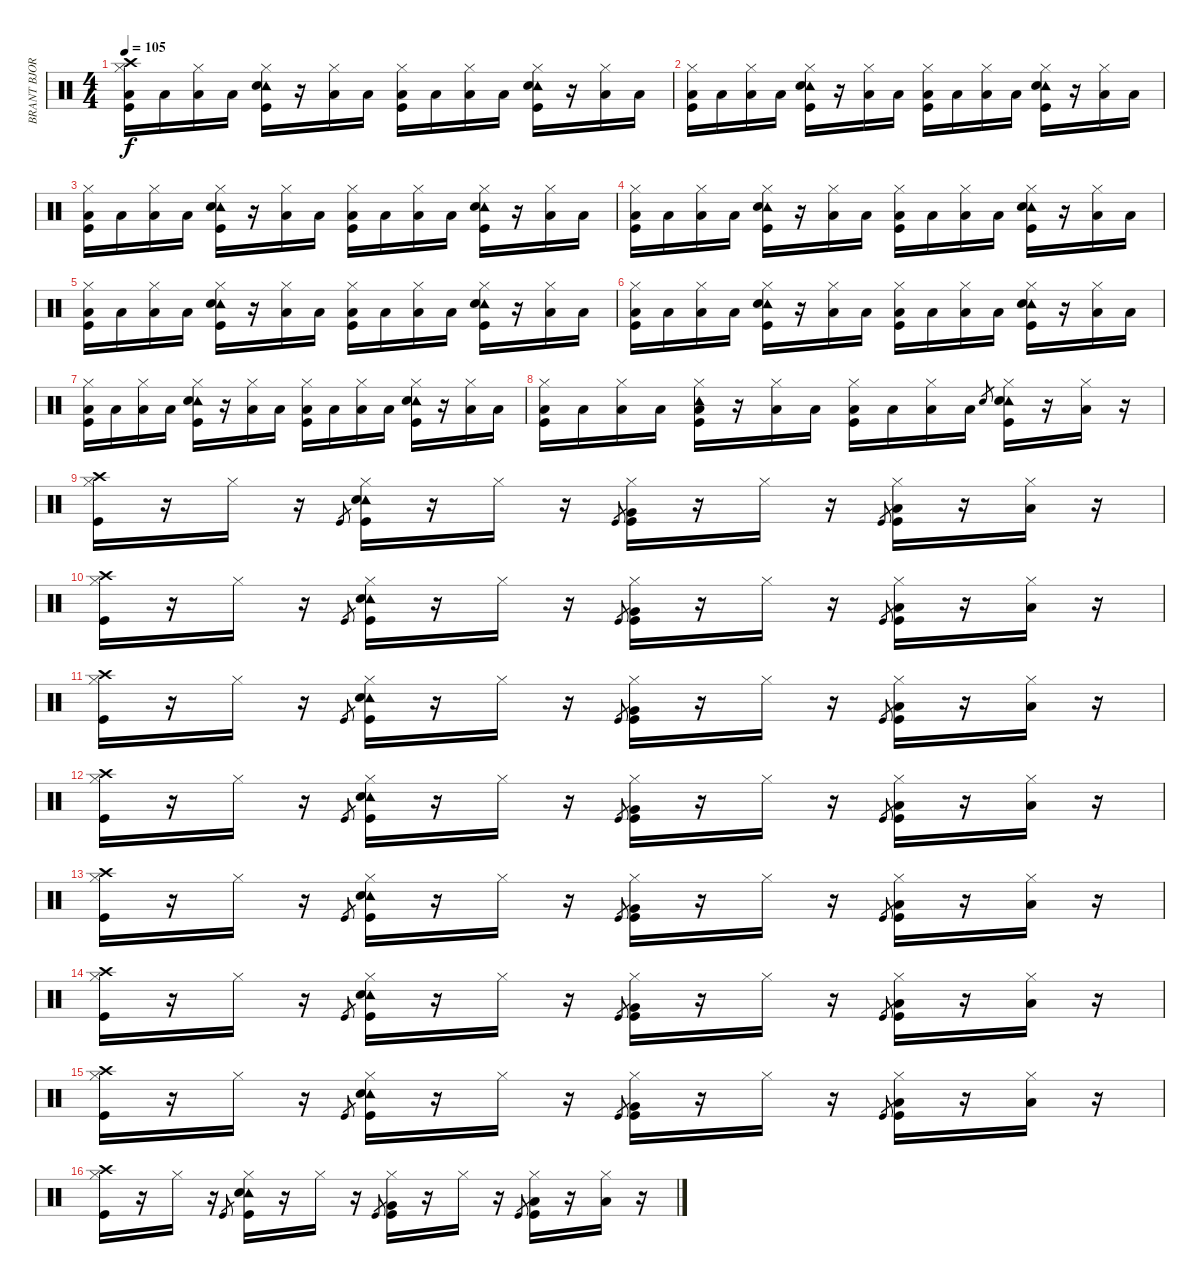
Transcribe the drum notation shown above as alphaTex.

\track ("BRANT BJORK -  DRUMS" "BRANT BJOR") {instrument percussion}
\staff {score}
\articulation defaults
\ts (4 4)
\tempo 105
\clef neutral
\ks c
("Crash high (hit)" "Hi-Hat (closed)" "Low Floor Tom (hit)" "Kick (hit)").16{dy f} "Low Floor Tom (hit)".16 ("Hi-Hat (closed)" "Low Floor Tom (hit)").16 "Low Floor Tom (hit)".16 ("Tambourine (hit)" "Hi-Hat (closed)" "Snare (hit) 2" "Kick (hit)").16 r.16 ("Hi-Hat (closed)" "Low Floor Tom (hit)").16 "Low Floor Tom (hit)".16 ("Hi-Hat (closed)" "Low Floor Tom (hit)" "Kick (hit)").16 "Low Floor Tom (hit)".16 ("Hi-Hat (closed)" "Low Floor Tom (hit)").16 "Low Floor Tom (hit)".16 ("Tambourine (hit)" "Hi-Hat (closed)" "Snare (hit) 2" "Kick (hit)").16 r.16 ("Hi-Hat (closed)" "Low Floor Tom (hit)").16 "Low Floor Tom (hit)".16 |
("Hi-Hat (closed)" "Low Floor Tom (hit)" "Kick (hit)").16 "Low Floor Tom (hit)".16 ("Hi-Hat (closed)" "Low Floor Tom (hit)").16 "Low Floor Tom (hit)".16 ("Tambourine (hit)" "Hi-Hat (closed)" "Snare (hit) 2" "Kick (hit)").16 r.16 ("Hi-Hat (closed)" "Low Floor Tom (hit)").16 "Low Floor Tom (hit)".16 ("Hi-Hat (closed)" "Low Floor Tom (hit)" "Kick (hit)").16 "Low Floor Tom (hit)".16 ("Hi-Hat (closed)" "Low Floor Tom (hit)").16 "Low Floor Tom (hit)".16 ("Tambourine (hit)" "Hi-Hat (closed)" "Snare (hit) 2" "Kick (hit)").16 r.16 ("Hi-Hat (closed)" "Low Floor Tom (hit)").16 "Low Floor Tom (hit)".16 |
("Hi-Hat (closed)" "Low Floor Tom (hit)" "Kick (hit)").16 "Low Floor Tom (hit)".16 ("Hi-Hat (closed)" "Low Floor Tom (hit)").16 "Low Floor Tom (hit)".16 ("Tambourine (hit)" "Hi-Hat (closed)" "Snare (hit) 2" "Kick (hit)").16 r.16 ("Hi-Hat (closed)" "Low Floor Tom (hit)").16 "Low Floor Tom (hit)".16 ("Hi-Hat (closed)" "Low Floor Tom (hit)" "Kick (hit)").16 "Low Floor Tom (hit)".16 ("Hi-Hat (closed)" "Low Floor Tom (hit)").16 "Low Floor Tom (hit)".16 ("Tambourine (hit)" "Hi-Hat (closed)" "Snare (hit) 2" "Kick (hit)").16 r.16 ("Hi-Hat (closed)" "Low Floor Tom (hit)").16 "Low Floor Tom (hit)".16 |
("Hi-Hat (closed)" "Low Floor Tom (hit)" "Kick (hit)").16 "Low Floor Tom (hit)".16 ("Hi-Hat (closed)" "Low Floor Tom (hit)").16 "Low Floor Tom (hit)".16 ("Tambourine (hit)" "Hi-Hat (closed)" "Snare (hit) 2" "Kick (hit)").16 r.16 ("Hi-Hat (closed)" "Low Floor Tom (hit)").16 "Low Floor Tom (hit)".16 ("Hi-Hat (closed)" "Low Floor Tom (hit)" "Kick (hit)").16 "Low Floor Tom (hit)".16 ("Hi-Hat (closed)" "Low Floor Tom (hit)").16 "Low Floor Tom (hit)".16 ("Tambourine (hit)" "Hi-Hat (closed)" "Snare (hit) 2" "Kick (hit)").16 r.16 ("Hi-Hat (closed)" "Low Floor Tom (hit)").16 "Low Floor Tom (hit)".16 |
("Hi-Hat (closed)" "Low Floor Tom (hit)" "Kick (hit)").16 "Low Floor Tom (hit)".16 ("Hi-Hat (closed)" "Low Floor Tom (hit)").16 "Low Floor Tom (hit)".16 ("Tambourine (hit)" "Hi-Hat (closed)" "Snare (hit) 2" "Kick (hit)").16 r.16 ("Hi-Hat (closed)" "Low Floor Tom (hit)").16 "Low Floor Tom (hit)".16 ("Hi-Hat (closed)" "Low Floor Tom (hit)" "Kick (hit)").16 "Low Floor Tom (hit)".16 ("Hi-Hat (closed)" "Low Floor Tom (hit)").16 "Low Floor Tom (hit)".16 ("Tambourine (hit)" "Hi-Hat (closed)" "Snare (hit) 2" "Kick (hit)").16 r.16 ("Hi-Hat (closed)" "Low Floor Tom (hit)").16 "Low Floor Tom (hit)".16 |
("Hi-Hat (closed)" "Low Floor Tom (hit)" "Kick (hit)").16 "Low Floor Tom (hit)".16 ("Hi-Hat (closed)" "Low Floor Tom (hit)").16 "Low Floor Tom (hit)".16 ("Tambourine (hit)" "Hi-Hat (closed)" "Snare (hit) 2" "Kick (hit)").16 r.16 ("Hi-Hat (closed)" "Low Floor Tom (hit)").16 "Low Floor Tom (hit)".16 ("Hi-Hat (closed)" "Low Floor Tom (hit)" "Kick (hit)").16 "Low Floor Tom (hit)".16 ("Hi-Hat (closed)" "Low Floor Tom (hit)").16 "Low Floor Tom (hit)".16 ("Tambourine (hit)" "Hi-Hat (closed)" "Snare (hit) 2" "Kick (hit)").16 r.16 ("Hi-Hat (closed)" "Low Floor Tom (hit)").16 "Low Floor Tom (hit)".16 |
("Hi-Hat (closed)" "Low Floor Tom (hit)" "Kick (hit)").16 "Low Floor Tom (hit)".16 ("Hi-Hat (closed)" "Low Floor Tom (hit)").16 "Low Floor Tom (hit)".16 ("Tambourine (hit)" "Hi-Hat (closed)" "Snare (hit) 2" "Kick (hit)").16 r.16 ("Hi-Hat (closed)" "Low Floor Tom (hit)").16 "Low Floor Tom (hit)".16 ("Hi-Hat (closed)" "Low Floor Tom (hit)" "Kick (hit)").16 "Low Floor Tom (hit)".16 ("Hi-Hat (closed)" "Low Floor Tom (hit)").16 "Low Floor Tom (hit)".16 ("Tambourine (hit)" "Hi-Hat (closed)" "Snare (hit) 2" "Kick (hit)").16 r.16 ("Hi-Hat (closed)" "Low Floor Tom (hit)").16 "Low Floor Tom (hit)".16 |
("Hi-Hat (closed)" "Low Floor Tom (hit)" "Kick (hit)").16 "Low Floor Tom (hit)".16 ("Hi-Hat (closed)" "Low Floor Tom (hit)").16 "Low Floor Tom (hit)".16 ("Tambourine (hit)" "Hi-Hat (closed)" "Low Floor Tom (hit)" "Kick (hit)").16 r.16 ("Hi-Hat (closed)" "Low Floor Tom (hit)").16 "Low Floor Tom (hit)".16 ("Hi-Hat (closed)" "Low Floor Tom (hit)" "Kick (hit)").16 "Low Floor Tom (hit)".16 ("Hi-Hat (closed)" "Low Floor Tom (hit)").16 "Low Floor Tom (hit)".16 "Snare (hit) 2".8{gr} ("Tambourine (hit)" "Hi-Hat (closed)" "Snare (hit) 2" "Kick (hit)").16 r.16 ("Hi-Hat (closed)" "Low Floor Tom (hit)").16 r.16 |
("Crash high (hit)" "Hi-Hat (closed)" "Kick (hit)").16 r.16 "Hi-Hat (closed)".16 r.16 "Kick (hit)".8{gr} ("Tambourine (hit)" "Hi-Hat (closed)" "Snare (hit) 2" "Kick (hit)").16 r.16 "Hi-Hat (closed)".16 r.16 "Kick (hit)".8{gr} ("Hi-Hat (closed)" "Very Low Tom (hit)" "Kick (hit)").16 r.16 "Hi-Hat (closed)".16 r.16 "Kick (hit)".8{gr} ("Hi-Hat (closed)" "Low Floor Tom (hit)" "Kick (hit)").16 r.16 ("Hi-Hat (closed)" "Low Floor Tom (hit)").16 r.16 |
("Crash high (hit)" "Hi-Hat (closed)" "Kick (hit)").16 r.16 "Hi-Hat (closed)".16 r.16 "Kick (hit)".8{gr} ("Tambourine (hit)" "Hi-Hat (closed)" "Snare (hit) 2" "Kick (hit)").16 r.16 "Hi-Hat (closed)".16 r.16 "Kick (hit)".8{gr} ("Hi-Hat (closed)" "Very Low Tom (hit)" "Kick (hit)").16 r.16 "Hi-Hat (closed)".16 r.16 "Kick (hit)".8{gr} ("Hi-Hat (closed)" "Low Floor Tom (hit)" "Kick (hit)").16 r.16 ("Hi-Hat (closed)" "Low Floor Tom (hit)").16 r.16 |
("Crash high (hit)" "Hi-Hat (closed)" "Kick (hit)").16 r.16 "Hi-Hat (closed)".16 r.16 "Kick (hit)".8{gr} ("Tambourine (hit)" "Hi-Hat (closed)" "Snare (hit) 2" "Kick (hit)").16 r.16 "Hi-Hat (closed)".16 r.16 "Kick (hit)".8{gr} ("Hi-Hat (closed)" "Very Low Tom (hit)" "Kick (hit)").16 r.16 "Hi-Hat (closed)".16 r.16 "Kick (hit)".8{gr} ("Hi-Hat (closed)" "Low Floor Tom (hit)" "Kick (hit)").16 r.16 ("Hi-Hat (closed)" "Low Floor Tom (hit)").16 r.16 |
("Crash high (hit)" "Hi-Hat (closed)" "Kick (hit)").16 r.16 "Hi-Hat (closed)".16 r.16 "Kick (hit)".8{gr} ("Tambourine (hit)" "Hi-Hat (closed)" "Snare (hit) 2" "Kick (hit)").16 r.16 "Hi-Hat (closed)".16 r.16 "Kick (hit)".8{gr} ("Hi-Hat (closed)" "Very Low Tom (hit)" "Kick (hit)").16 r.16 "Hi-Hat (closed)".16 r.16 "Kick (hit)".8{gr} ("Hi-Hat (closed)" "Low Floor Tom (hit)" "Kick (hit)").16 r.16 ("Hi-Hat (closed)" "Low Floor Tom (hit)").16 r.16 |
("Crash high (hit)" "Hi-Hat (closed)" "Kick (hit)").16 r.16 "Hi-Hat (closed)".16 r.16 "Kick (hit)".8{gr} ("Tambourine (hit)" "Hi-Hat (closed)" "Snare (hit) 2" "Kick (hit)").16 r.16 "Hi-Hat (closed)".16 r.16 "Kick (hit)".8{gr} ("Hi-Hat (closed)" "Very Low Tom (hit)" "Kick (hit)").16 r.16 "Hi-Hat (closed)".16 r.16 "Kick (hit)".8{gr} ("Hi-Hat (closed)" "Low Floor Tom (hit)" "Kick (hit)").16 r.16 ("Hi-Hat (closed)" "Low Floor Tom (hit)").16 r.16 |
("Crash high (hit)" "Hi-Hat (closed)" "Kick (hit)").16 r.16 "Hi-Hat (closed)".16 r.16 "Kick (hit)".8{gr} ("Tambourine (hit)" "Hi-Hat (closed)" "Snare (hit) 2" "Kick (hit)").16 r.16 "Hi-Hat (closed)".16 r.16 "Kick (hit)".8{gr} ("Hi-Hat (closed)" "Very Low Tom (hit)" "Kick (hit)").16 r.16 "Hi-Hat (closed)".16 r.16 "Kick (hit)".8{gr} ("Hi-Hat (closed)" "Low Floor Tom (hit)" "Kick (hit)").16 r.16 ("Hi-Hat (closed)" "Low Floor Tom (hit)").16 r.16 |
("Crash high (hit)" "Hi-Hat (closed)" "Kick (hit)").16 r.16 "Hi-Hat (closed)".16 r.16 "Kick (hit)".8{gr} ("Tambourine (hit)" "Hi-Hat (closed)" "Snare (hit) 2" "Kick (hit)").16 r.16 "Hi-Hat (closed)".16 r.16 "Kick (hit)".8{gr} ("Hi-Hat (closed)" "Very Low Tom (hit)" "Kick (hit)").16 r.16 "Hi-Hat (closed)".16 r.16 "Kick (hit)".8{gr} ("Hi-Hat (closed)" "Low Floor Tom (hit)" "Kick (hit)").16 r.16 ("Hi-Hat (closed)" "Low Floor Tom (hit)").16 r.16 |
("Crash high (hit)" "Hi-Hat (closed)" "Kick (hit)").16 r.16 "Hi-Hat (closed)".16 r.16 "Kick (hit)".8{gr} ("Tambourine (hit)" "Hi-Hat (closed)" "Snare (hit) 2" "Kick (hit)").16 r.16 "Hi-Hat (closed)".16 r.16 "Kick (hit)".8{gr} ("Hi-Hat (closed)" "Very Low Tom (hit)" "Kick (hit)").16 r.16 "Hi-Hat (closed)".16 r.16 "Kick (hit)".8{gr} ("Hi-Hat (closed)" "Low Floor Tom (hit)" "Kick (hit)").16 r.16 ("Hi-Hat (closed)" "Low Floor Tom (hit)").16 r.16
